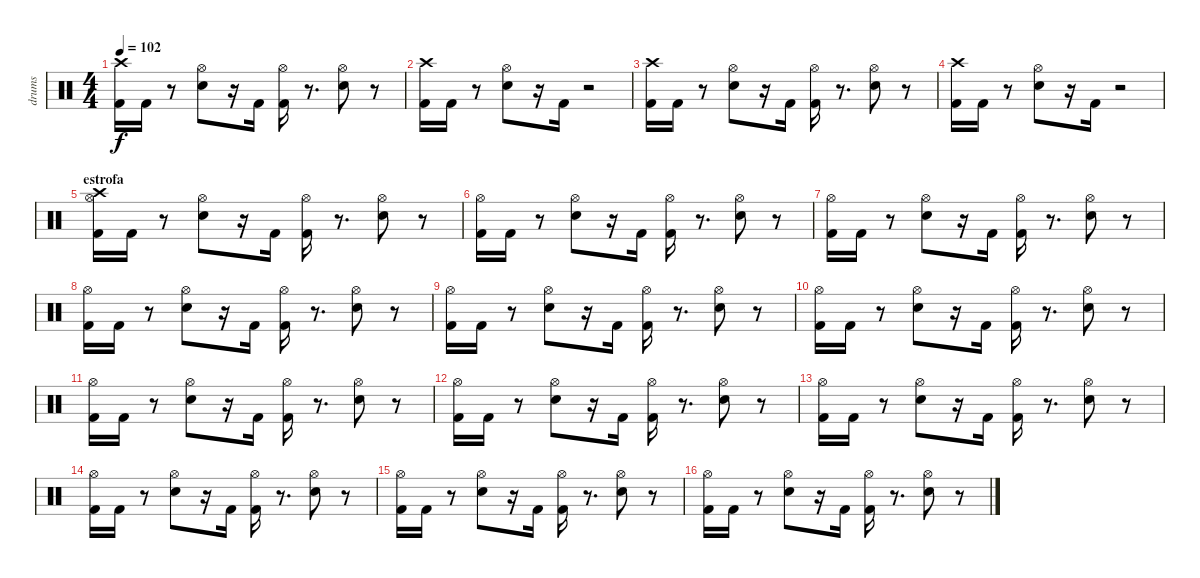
\track ("drums" "drums") {instrument percussion}
\staff {score}
\articulation defaults
\ts (4 4)
\tempo 102
\clef neutral
\ks c
("Kick (hit) 2" "Crash high (hit)").16{dy f} "Kick (hit) 2".16 r.8 ("Snare (hit) 2" "Hi-Hat (open)").8 r.16 "Kick (hit) 2".16 ("Kick (hit) 2" "Hi-Hat (open)").16 r.8{d} ("Snare (hit) 2" "Hi-Hat (open)").8 r.8 |
("Kick (hit) 2" "Crash high (hit)").16 "Kick (hit) 2".16 r.8 ("Snare (hit) 2" "Hi-Hat (open)").8 r.16 "Kick (hit) 2".16 r.2 |
("Kick (hit) 2" "Crash high (hit)").16 "Kick (hit) 2".16 r.8 ("Snare (hit) 2" "Hi-Hat (open)").8 r.16 "Kick (hit) 2".16 ("Kick (hit) 2" "Hi-Hat (open)").16 r.8{d} ("Snare (hit) 2" "Hi-Hat (open)").8 r.8 |
("Kick (hit) 2" "Crash high (hit)").16 "Kick (hit) 2".16 r.8 ("Snare (hit) 2" "Hi-Hat (open)").8 r.16 "Kick (hit) 2".16 r.2 |
\section ("" "estrofa")
("Kick (hit) 2" "Hi-Hat (open)" "Crash high (hit)").16 "Kick (hit) 2".16 r.8 ("Snare (hit) 2" "Hi-Hat (open)").8 r.16 "Kick (hit) 2".16 ("Kick (hit) 2" "Hi-Hat (open)").16 r.8{d} ("Snare (hit) 2" "Hi-Hat (open)").8 r.8 |
("Kick (hit) 2" "Hi-Hat (open)").16 "Kick (hit) 2".16 r.8 ("Snare (hit) 2" "Hi-Hat (open)").8 r.16 "Kick (hit) 2".16 ("Kick (hit) 2" "Hi-Hat (open)").16 r.8{d} ("Snare (hit) 2" "Hi-Hat (open)").8 r.8 |
("Kick (hit) 2" "Hi-Hat (open)").16 "Kick (hit) 2".16 r.8 ("Snare (hit) 2" "Hi-Hat (open)").8 r.16 "Kick (hit) 2".16 ("Kick (hit) 2" "Hi-Hat (open)").16 r.8{d} ("Snare (hit) 2" "Hi-Hat (open)").8 r.8 |
("Kick (hit) 2" "Hi-Hat (open)").16 "Kick (hit) 2".16 r.8 ("Snare (hit) 2" "Hi-Hat (open)").8 r.16 "Kick (hit) 2".16 ("Kick (hit) 2" "Hi-Hat (open)").16 r.8{d} ("Snare (hit) 2" "Hi-Hat (open)").8 r.8 |
("Kick (hit) 2" "Hi-Hat (open)").16 "Kick (hit) 2".16 r.8 ("Snare (hit) 2" "Hi-Hat (open)").8 r.16 "Kick (hit) 2".16 ("Kick (hit) 2" "Hi-Hat (open)").16 r.8{d} ("Snare (hit) 2" "Hi-Hat (open)").8 r.8 |
("Kick (hit) 2" "Hi-Hat (open)").16 "Kick (hit) 2".16 r.8 ("Snare (hit) 2" "Hi-Hat (open)").8 r.16 "Kick (hit) 2".16 ("Kick (hit) 2" "Hi-Hat (open)").16 r.8{d} ("Snare (hit) 2" "Hi-Hat (open)").8 r.8 |
("Kick (hit) 2" "Hi-Hat (open)").16 "Kick (hit) 2".16 r.8 ("Snare (hit) 2" "Hi-Hat (open)").8 r.16 "Kick (hit) 2".16 ("Kick (hit) 2" "Hi-Hat (open)").16 r.8{d} ("Snare (hit) 2" "Hi-Hat (open)").8 r.8 |
("Kick (hit) 2" "Hi-Hat (open)").16 "Kick (hit) 2".16 r.8 ("Snare (hit) 2" "Hi-Hat (open)").8 r.16 "Kick (hit) 2".16 ("Kick (hit) 2" "Hi-Hat (open)").16 r.8{d} ("Snare (hit) 2" "Hi-Hat (open)").8 r.8 |
("Kick (hit) 2" "Hi-Hat (open)").16 "Kick (hit) 2".16 r.8 ("Snare (hit) 2" "Hi-Hat (open)").8 r.16 "Kick (hit) 2".16 ("Kick (hit) 2" "Hi-Hat (open)").16 r.8{d} ("Snare (hit) 2" "Hi-Hat (open)").8 r.8 |
("Kick (hit) 2" "Hi-Hat (open)").16 "Kick (hit) 2".16 r.8 ("Snare (hit) 2" "Hi-Hat (open)").8 r.16 "Kick (hit) 2".16 ("Kick (hit) 2" "Hi-Hat (open)").16 r.8{d} ("Snare (hit) 2" "Hi-Hat (open)").8 r.8 |
("Kick (hit) 2" "Hi-Hat (open)").16 "Kick (hit) 2".16 r.8 ("Snare (hit) 2" "Hi-Hat (open)").8 r.16 "Kick (hit) 2".16 ("Kick (hit) 2" "Hi-Hat (open)").16 r.8{d} ("Snare (hit) 2" "Hi-Hat (open)").8 r.8 |
("Kick (hit) 2" "Hi-Hat (open)").16 "Kick (hit) 2".16 r.8 ("Snare (hit) 2" "Hi-Hat (open)").8 r.16 "Kick (hit) 2".16 ("Kick (hit) 2" "Hi-Hat (open)").16 r.8{d} ("Snare (hit) 2" "Hi-Hat (open)").8 r.8
